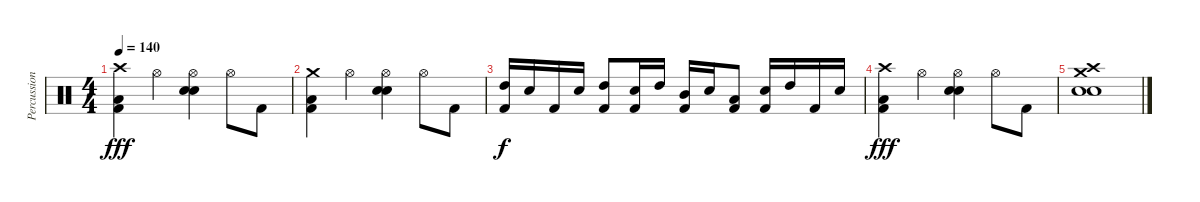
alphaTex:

\track ("Percussion" "Percussion") {instrument percussion}
\staff {score}
\articulation defaults
\ts (4 4)
\tempo 140
\clef neutral
\ks c
("Crash high (hit)" "Low Floor Tom (hit)" "Kick (hit) 2").4{dy fff} "Hi-Hat (open)".4 ("Hi-Hat (open)" "Snare (hit) 2" "Electric Snare (hit)").4 "Hi-Hat (open)".8 "Kick (hit) 2".8 |
("Crash medium (hit)" "Low Floor Tom (hit)" "Kick (hit) 2").4 "Hi-Hat (open)".4 ("Hi-Hat (open)" "Snare (hit) 2" "Electric Snare (hit)").4 "Hi-Hat (open)".8 "Kick (hit) 2".8 |
("High Tom (hit)" "Kick (hit) 2").16{dy f} "Snare (hit) 2".16 "Kick (hit) 2".16 "Snare (hit) 2".16 ("High Tom (hit)" "Kick (hit) 2").8 ("Snare (hit) 2" "Kick (hit) 2").16 "High Tom (hit)".16 ("Mid Tom (hit)" "Kick (hit) 2").16 "Snare (hit) 2".16 ("Low Tom (hit)" "Kick (hit) 2").8 ("Snare (hit) 2" "Kick (hit) 2").16 "High Tom (hit)".16 "Kick (hit) 2".16 "Snare (hit) 2".16 |
("Crash high (hit)" "Low Floor Tom (hit)" "Kick (hit) 2").4{dy fff} "Hi-Hat (open)".4 ("Hi-Hat (open)" "Snare (hit) 2" "Electric Snare (hit)").4 "Hi-Hat (open)".8 "Kick (hit) 2".8 |
("Crash high (hit)" "Snare (hit) 2" "Crash medium (hit)" "Electric Snare (hit)").1
